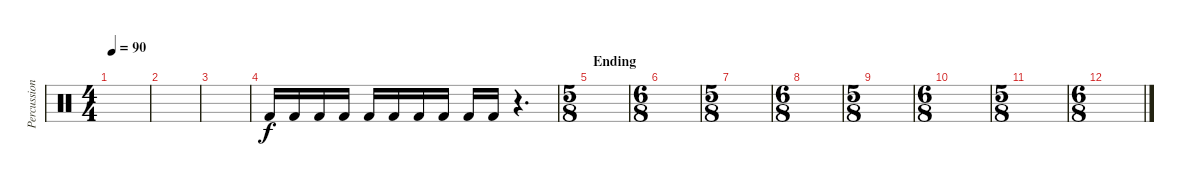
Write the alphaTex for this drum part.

\track ("Percussion2" "Percussion") {instrument percussion}
\staff {score}
\articulation defaults
\ts (4 4)
\tempo 90
\clef neutral
\ks c
|
|
|
"Kick (hit) 2".16 "Kick (hit) 2".16 "Kick (hit) 2".16 "Kick (hit) 2".16 "Kick (hit) 2".16 "Kick (hit) 2".16 "Kick (hit) 2".16 "Kick (hit) 2".16 "Kick (hit) 2".16 "Kick (hit) 2".16 r.4{d} |
\ts (5 8)
\section ("" "Ending")
|
\ts (6 8)
|
\ts (5 8)
|
\ts (6 8)
|
\ts (5 8)
|
\ts (6 8)
|
\ts (5 8)
|
\ts (6 8)
